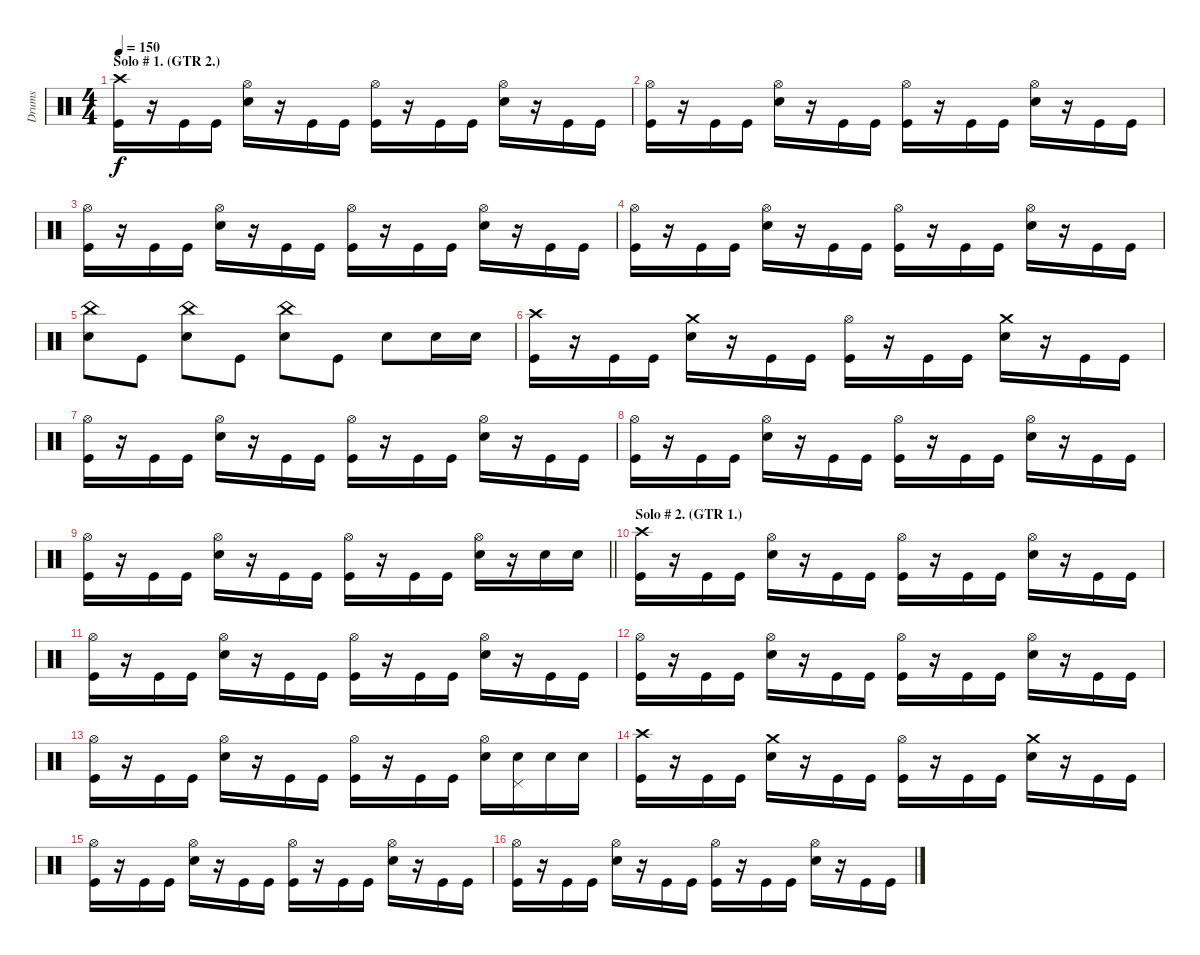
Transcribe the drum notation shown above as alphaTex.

\track ("Drums" "Drums") {instrument percussion}
\staff {score}
\articulation defaults
\ts (4 4)
\section ("" "Solo # 1. (GTR 2.)")
\tempo 150
\clef neutral
\ks c
("Crash high (hit)" "Kick (hit)").16{dy f} r.16 "Kick (hit)".16 "Kick (hit)".16 ("Hi-Hat (open)" "Electric Snare (hit)").16 r.16 "Kick (hit)".16 "Kick (hit)".16 ("Hi-Hat (open)" "Kick (hit)").16 r.16 "Kick (hit)".16 "Kick (hit)".16 ("Hi-Hat (open)" "Electric Snare (hit)").16 r.16 "Kick (hit)".16 "Kick (hit)".16 |
("Hi-Hat (open)" "Kick (hit)").16 r.16 "Kick (hit)".16 "Kick (hit)".16 ("Hi-Hat (open)" "Electric Snare (hit)").16 r.16 "Kick (hit)".16 "Kick (hit)".16 ("Hi-Hat (open)" "Kick (hit)").16 r.16 "Kick (hit)".16 "Kick (hit)".16 ("Hi-Hat (open)" "Electric Snare (hit)").16 r.16 "Kick (hit)".16 "Kick (hit)".16 |
("Hi-Hat (open)" "Kick (hit)").16 r.16 "Kick (hit)".16 "Kick (hit)".16 ("Hi-Hat (open)" "Electric Snare (hit)").16 r.16 "Kick (hit)".16 "Kick (hit)".16 ("Hi-Hat (open)" "Kick (hit)").16 r.16 "Kick (hit)".16 "Kick (hit)".16 ("Hi-Hat (open)" "Electric Snare (hit)").16 r.16 "Kick (hit)".16 "Kick (hit)".16 |
("Hi-Hat (open)" "Kick (hit)").16 r.16 "Kick (hit)".16 "Kick (hit)".16 ("Hi-Hat (open)" "Electric Snare (hit)").16 r.16 "Kick (hit)".16 "Kick (hit)".16 ("Hi-Hat (open)" "Kick (hit)").16 r.16 "Kick (hit)".16 "Kick (hit)".16 ("Hi-Hat (open)" "Electric Snare (hit)").16 r.16 "Kick (hit)".16 "Kick (hit)".16 |
("China (hit)" "Electric Snare (hit)").8 "Kick (hit)".8 ("China (hit)" "Electric Snare (hit)").8 "Kick (hit)".8 ("China (hit)" "Electric Snare (hit)").8 "Kick (hit)".8 "Electric Snare (hit)".8 "Electric Snare (hit)".16 "Electric Snare (hit)".16 |
("Crash high (hit)" "Kick (hit)").16 r.16 "Kick (hit)".16 "Kick (hit)".16 ("Crash medium (hit)" "Electric Snare (hit)").16 r.16 "Kick (hit)".16 "Kick (hit)".16 ("Hi-Hat (open)" "Kick (hit)").16 r.16 "Kick (hit)".16 "Kick (hit)".16 ("Crash medium (hit)" "Electric Snare (hit)").16 r.16 "Kick (hit)".16 "Kick (hit)".16 |
("Hi-Hat (open)" "Kick (hit)").16 r.16 "Kick (hit)".16 "Kick (hit)".16 ("Hi-Hat (open)" "Electric Snare (hit)").16 r.16 "Kick (hit)".16 "Kick (hit)".16 ("Hi-Hat (open)" "Kick (hit)").16 r.16 "Kick (hit)".16 "Kick (hit)".16 ("Hi-Hat (open)" "Electric Snare (hit)").16 r.16 "Kick (hit)".16 "Kick (hit)".16 |
("Hi-Hat (open)" "Kick (hit)").16 r.16 "Kick (hit)".16 "Kick (hit)".16 ("Hi-Hat (open)" "Electric Snare (hit)").16 r.16 "Kick (hit)".16 "Kick (hit)".16 ("Hi-Hat (open)" "Kick (hit)").16 r.16 "Kick (hit)".16 "Kick (hit)".16 ("Hi-Hat (open)" "Electric Snare (hit)").16 r.16 "Kick (hit)".16 "Kick (hit)".16 |
\barLineRight lightlight
("Hi-Hat (open)" "Kick (hit)").16 r.16 "Kick (hit)".16 "Kick (hit)".16 ("Hi-Hat (open)" "Electric Snare (hit)").16 r.16 "Kick (hit)".16 "Kick (hit)".16 ("Hi-Hat (open)" "Kick (hit)").16 r.16 "Kick (hit)".16 "Kick (hit)".16 ("Hi-Hat (open)" "Electric Snare (hit)").16 r.16 "Electric Snare (hit)".16 "Electric Snare (hit)".16 |
\section ("" "Solo # 2. (GTR 1.)")
("Crash high (hit)" "Kick (hit)").16 r.16 "Kick (hit)".16 "Kick (hit)".16 ("Hi-Hat (open)" "Electric Snare (hit)").16 r.16 "Kick (hit)".16 "Kick (hit)".16 ("Hi-Hat (open)" "Kick (hit)").16 r.16 "Kick (hit)".16 "Kick (hit)".16 ("Hi-Hat (open)" "Electric Snare (hit)").16 r.16 "Kick (hit)".16 "Kick (hit)".16 |
("Hi-Hat (open)" "Kick (hit)").16 r.16 "Kick (hit)".16 "Kick (hit)".16 ("Hi-Hat (open)" "Electric Snare (hit)").16 r.16 "Kick (hit)".16 "Kick (hit)".16 ("Hi-Hat (open)" "Kick (hit)").16 r.16 "Kick (hit)".16 "Kick (hit)".16 ("Hi-Hat (open)" "Electric Snare (hit)").16 r.16 "Kick (hit)".16 "Kick (hit)".16 |
("Hi-Hat (open)" "Kick (hit)").16 r.16 "Kick (hit)".16 "Kick (hit)".16 ("Hi-Hat (open)" "Electric Snare (hit)").16 r.16 "Kick (hit)".16 "Kick (hit)".16 ("Hi-Hat (open)" "Kick (hit)").16 r.16 "Kick (hit)".16 "Kick (hit)".16 ("Hi-Hat (open)" "Electric Snare (hit)").16 r.16 "Kick (hit)".16 "Kick (hit)".16 |
("Hi-Hat (open)" "Kick (hit)").16 r.16 "Kick (hit)".16 "Kick (hit)".16 ("Hi-Hat (open)" "Electric Snare (hit)").16 r.16 "Kick (hit)".16 "Kick (hit)".16 ("Hi-Hat (open)" "Kick (hit)").16 r.16 "Kick (hit)".16 "Kick (hit)".16 ("Hi-Hat (open)" "Electric Snare (hit)").16 ("Pedal Hi-Hat (hit)" "Electric Snare (hit)").16 "Electric Snare (hit)".16 "Electric Snare (hit)".16 |
("Crash high (hit)" "Kick (hit)").16 r.16 "Kick (hit)".16 "Kick (hit)".16 ("Crash medium (hit)" "Electric Snare (hit)").16 r.16 "Kick (hit)".16 "Kick (hit)".16 ("Hi-Hat (open)" "Kick (hit)").16 r.16 "Kick (hit)".16 "Kick (hit)".16 ("Crash medium (hit)" "Electric Snare (hit)").16 r.16 "Kick (hit)".16 "Kick (hit)".16 |
("Hi-Hat (open)" "Kick (hit)").16 r.16 "Kick (hit)".16 "Kick (hit)".16 ("Hi-Hat (open)" "Electric Snare (hit)").16 r.16 "Kick (hit)".16 "Kick (hit)".16 ("Hi-Hat (open)" "Kick (hit)").16 r.16 "Kick (hit)".16 "Kick (hit)".16 ("Hi-Hat (open)" "Electric Snare (hit)").16 r.16 "Kick (hit)".16 "Kick (hit)".16 |
("Hi-Hat (open)" "Kick (hit)").16 r.16 "Kick (hit)".16 "Kick (hit)".16 ("Hi-Hat (open)" "Electric Snare (hit)").16 r.16 "Kick (hit)".16 "Kick (hit)".16 ("Hi-Hat (open)" "Kick (hit)").16 r.16 "Kick (hit)".16 "Kick (hit)".16 ("Hi-Hat (open)" "Electric Snare (hit)").16 r.16 "Kick (hit)".16 "Kick (hit)".16
